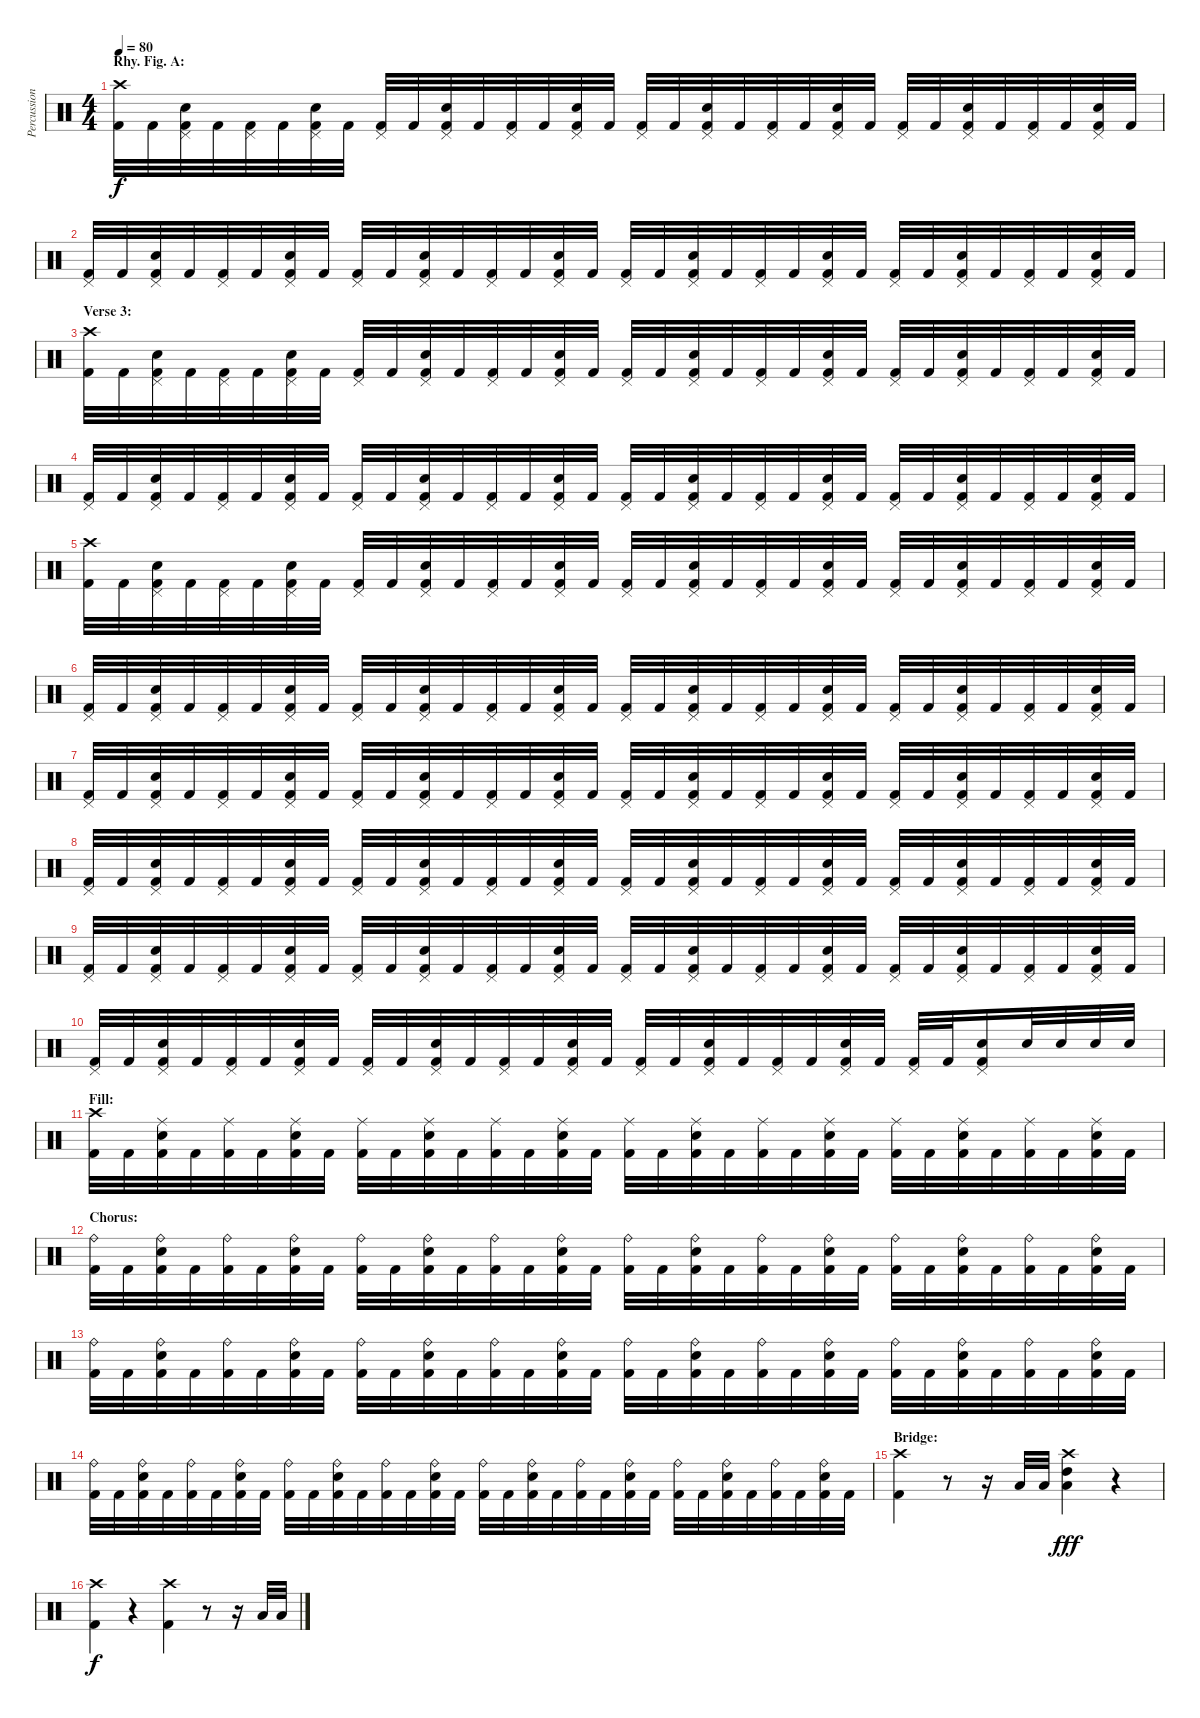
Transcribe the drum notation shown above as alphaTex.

\track ("Percussion" "Percussion") {instrument percussion}
\staff {score}
\articulation defaults
\ts (4 4)
\section ("" "Rhy. Fig. A:")
\tempo 80
\clef neutral
\ks c
("Crash high (hit)" "Kick (hit) 2").32{dy f} "Kick (hit) 2".32 ("Pedal Hi-Hat (hit)" "Electric Snare (hit)" "Kick (hit) 2").32 "Kick (hit) 2".32 ("Pedal Hi-Hat (hit)" "Kick (hit) 2").32 "Kick (hit) 2".32 ("Pedal Hi-Hat (hit)" "Electric Snare (hit)" "Kick (hit) 2").32 "Kick (hit) 2".32 ("Pedal Hi-Hat (hit)" "Kick (hit) 2").32 "Kick (hit) 2".32 ("Pedal Hi-Hat (hit)" "Electric Snare (hit)" "Kick (hit) 2").32 "Kick (hit) 2".32 ("Pedal Hi-Hat (hit)" "Kick (hit) 2").32 "Kick (hit) 2".32 ("Pedal Hi-Hat (hit)" "Electric Snare (hit)" "Kick (hit) 2").32 "Kick (hit) 2".32 ("Pedal Hi-Hat (hit)" "Kick (hit) 2").32 "Kick (hit) 2".32 ("Pedal Hi-Hat (hit)" "Electric Snare (hit)" "Kick (hit) 2").32 "Kick (hit) 2".32 ("Pedal Hi-Hat (hit)" "Kick (hit) 2").32 "Kick (hit) 2".32 ("Pedal Hi-Hat (hit)" "Electric Snare (hit)" "Kick (hit) 2").32 "Kick (hit) 2".32 ("Pedal Hi-Hat (hit)" "Kick (hit) 2").32 "Kick (hit) 2".32 ("Pedal Hi-Hat (hit)" "Electric Snare (hit)" "Kick (hit) 2").32 "Kick (hit) 2".32 ("Pedal Hi-Hat (hit)" "Kick (hit) 2").32 "Kick (hit) 2".32 ("Pedal Hi-Hat (hit)" "Electric Snare (hit)" "Kick (hit) 2").32 "Kick (hit) 2".32 |
("Pedal Hi-Hat (hit)" "Kick (hit) 2").32 "Kick (hit) 2".32 ("Pedal Hi-Hat (hit)" "Electric Snare (hit)" "Kick (hit) 2").32 "Kick (hit) 2".32 ("Pedal Hi-Hat (hit)" "Kick (hit) 2").32 "Kick (hit) 2".32 ("Pedal Hi-Hat (hit)" "Electric Snare (hit)" "Kick (hit) 2").32 "Kick (hit) 2".32 ("Pedal Hi-Hat (hit)" "Kick (hit) 2").32 "Kick (hit) 2".32 ("Pedal Hi-Hat (hit)" "Electric Snare (hit)" "Kick (hit) 2").32 "Kick (hit) 2".32 ("Pedal Hi-Hat (hit)" "Kick (hit) 2").32 "Kick (hit) 2".32 ("Pedal Hi-Hat (hit)" "Electric Snare (hit)" "Kick (hit) 2").32 "Kick (hit) 2".32 ("Pedal Hi-Hat (hit)" "Kick (hit) 2").32 "Kick (hit) 2".32 ("Pedal Hi-Hat (hit)" "Electric Snare (hit)" "Kick (hit) 2").32 "Kick (hit) 2".32 ("Pedal Hi-Hat (hit)" "Kick (hit) 2").32 "Kick (hit) 2".32 ("Pedal Hi-Hat (hit)" "Electric Snare (hit)" "Kick (hit) 2").32 "Kick (hit) 2".32 ("Pedal Hi-Hat (hit)" "Kick (hit) 2").32 "Kick (hit) 2".32 ("Pedal Hi-Hat (hit)" "Electric Snare (hit)" "Kick (hit) 2").32 "Kick (hit) 2".32 ("Pedal Hi-Hat (hit)" "Kick (hit) 2").32 "Kick (hit) 2".32 ("Pedal Hi-Hat (hit)" "Electric Snare (hit)" "Kick (hit) 2").32 "Kick (hit) 2".32 |
\section ("" "Verse 3:")
("Crash high (hit)" "Kick (hit) 2").32 "Kick (hit) 2".32 ("Pedal Hi-Hat (hit)" "Electric Snare (hit)" "Kick (hit) 2").32 "Kick (hit) 2".32 ("Pedal Hi-Hat (hit)" "Kick (hit) 2").32 "Kick (hit) 2".32 ("Pedal Hi-Hat (hit)" "Electric Snare (hit)" "Kick (hit) 2").32 "Kick (hit) 2".32 ("Pedal Hi-Hat (hit)" "Kick (hit) 2").32 "Kick (hit) 2".32 ("Pedal Hi-Hat (hit)" "Electric Snare (hit)" "Kick (hit) 2").32 "Kick (hit) 2".32 ("Pedal Hi-Hat (hit)" "Kick (hit) 2").32 "Kick (hit) 2".32 ("Pedal Hi-Hat (hit)" "Electric Snare (hit)" "Kick (hit) 2").32 "Kick (hit) 2".32 ("Pedal Hi-Hat (hit)" "Kick (hit) 2").32 "Kick (hit) 2".32 ("Pedal Hi-Hat (hit)" "Electric Snare (hit)" "Kick (hit) 2").32 "Kick (hit) 2".32 ("Pedal Hi-Hat (hit)" "Kick (hit) 2").32 "Kick (hit) 2".32 ("Pedal Hi-Hat (hit)" "Electric Snare (hit)" "Kick (hit) 2").32 "Kick (hit) 2".32 ("Pedal Hi-Hat (hit)" "Kick (hit) 2").32 "Kick (hit) 2".32 ("Pedal Hi-Hat (hit)" "Electric Snare (hit)" "Kick (hit) 2").32 "Kick (hit) 2".32 ("Pedal Hi-Hat (hit)" "Kick (hit) 2").32 "Kick (hit) 2".32 ("Pedal Hi-Hat (hit)" "Electric Snare (hit)" "Kick (hit) 2").32 "Kick (hit) 2".32 |
("Pedal Hi-Hat (hit)" "Kick (hit) 2").32 "Kick (hit) 2".32 ("Pedal Hi-Hat (hit)" "Electric Snare (hit)" "Kick (hit) 2").32 "Kick (hit) 2".32 ("Pedal Hi-Hat (hit)" "Kick (hit) 2").32 "Kick (hit) 2".32 ("Pedal Hi-Hat (hit)" "Electric Snare (hit)" "Kick (hit) 2").32 "Kick (hit) 2".32 ("Pedal Hi-Hat (hit)" "Kick (hit) 2").32 "Kick (hit) 2".32 ("Pedal Hi-Hat (hit)" "Electric Snare (hit)" "Kick (hit) 2").32 "Kick (hit) 2".32 ("Pedal Hi-Hat (hit)" "Kick (hit) 2").32 "Kick (hit) 2".32 ("Pedal Hi-Hat (hit)" "Electric Snare (hit)" "Kick (hit) 2").32 "Kick (hit) 2".32 ("Pedal Hi-Hat (hit)" "Kick (hit) 2").32 "Kick (hit) 2".32 ("Pedal Hi-Hat (hit)" "Electric Snare (hit)" "Kick (hit) 2").32 "Kick (hit) 2".32 ("Pedal Hi-Hat (hit)" "Kick (hit) 2").32 "Kick (hit) 2".32 ("Pedal Hi-Hat (hit)" "Electric Snare (hit)" "Kick (hit) 2").32 "Kick (hit) 2".32 ("Pedal Hi-Hat (hit)" "Kick (hit) 2").32 "Kick (hit) 2".32 ("Pedal Hi-Hat (hit)" "Electric Snare (hit)" "Kick (hit) 2").32 "Kick (hit) 2".32 ("Pedal Hi-Hat (hit)" "Kick (hit) 2").32 "Kick (hit) 2".32 ("Pedal Hi-Hat (hit)" "Electric Snare (hit)" "Kick (hit) 2").32 "Kick (hit) 2".32 |
("Crash high (hit)" "Kick (hit) 2").32 "Kick (hit) 2".32 ("Pedal Hi-Hat (hit)" "Electric Snare (hit)" "Kick (hit) 2").32 "Kick (hit) 2".32 ("Pedal Hi-Hat (hit)" "Kick (hit) 2").32 "Kick (hit) 2".32 ("Pedal Hi-Hat (hit)" "Electric Snare (hit)" "Kick (hit) 2").32 "Kick (hit) 2".32 ("Pedal Hi-Hat (hit)" "Kick (hit) 2").32 "Kick (hit) 2".32 ("Pedal Hi-Hat (hit)" "Electric Snare (hit)" "Kick (hit) 2").32 "Kick (hit) 2".32 ("Pedal Hi-Hat (hit)" "Kick (hit) 2").32 "Kick (hit) 2".32 ("Pedal Hi-Hat (hit)" "Electric Snare (hit)" "Kick (hit) 2").32 "Kick (hit) 2".32 ("Pedal Hi-Hat (hit)" "Kick (hit) 2").32 "Kick (hit) 2".32 ("Pedal Hi-Hat (hit)" "Electric Snare (hit)" "Kick (hit) 2").32 "Kick (hit) 2".32 ("Pedal Hi-Hat (hit)" "Kick (hit) 2").32 "Kick (hit) 2".32 ("Pedal Hi-Hat (hit)" "Electric Snare (hit)" "Kick (hit) 2").32 "Kick (hit) 2".32 ("Pedal Hi-Hat (hit)" "Kick (hit) 2").32 "Kick (hit) 2".32 ("Pedal Hi-Hat (hit)" "Electric Snare (hit)" "Kick (hit) 2").32 "Kick (hit) 2".32 ("Pedal Hi-Hat (hit)" "Kick (hit) 2").32 "Kick (hit) 2".32 ("Pedal Hi-Hat (hit)" "Electric Snare (hit)" "Kick (hit) 2").32 "Kick (hit) 2".32 |
("Pedal Hi-Hat (hit)" "Kick (hit) 2").32 "Kick (hit) 2".32 ("Pedal Hi-Hat (hit)" "Electric Snare (hit)" "Kick (hit) 2").32 "Kick (hit) 2".32 ("Pedal Hi-Hat (hit)" "Kick (hit) 2").32 "Kick (hit) 2".32 ("Pedal Hi-Hat (hit)" "Electric Snare (hit)" "Kick (hit) 2").32 "Kick (hit) 2".32 ("Pedal Hi-Hat (hit)" "Kick (hit) 2").32 "Kick (hit) 2".32 ("Pedal Hi-Hat (hit)" "Electric Snare (hit)" "Kick (hit) 2").32 "Kick (hit) 2".32 ("Pedal Hi-Hat (hit)" "Kick (hit) 2").32 "Kick (hit) 2".32 ("Pedal Hi-Hat (hit)" "Electric Snare (hit)" "Kick (hit) 2").32 "Kick (hit) 2".32 ("Pedal Hi-Hat (hit)" "Kick (hit) 2").32 "Kick (hit) 2".32 ("Pedal Hi-Hat (hit)" "Electric Snare (hit)" "Kick (hit) 2").32 "Kick (hit) 2".32 ("Pedal Hi-Hat (hit)" "Kick (hit) 2").32 "Kick (hit) 2".32 ("Pedal Hi-Hat (hit)" "Electric Snare (hit)" "Kick (hit) 2").32 "Kick (hit) 2".32 ("Pedal Hi-Hat (hit)" "Kick (hit) 2").32 "Kick (hit) 2".32 ("Pedal Hi-Hat (hit)" "Electric Snare (hit)" "Kick (hit) 2").32 "Kick (hit) 2".32 ("Pedal Hi-Hat (hit)" "Kick (hit) 2").32 "Kick (hit) 2".32 ("Pedal Hi-Hat (hit)" "Electric Snare (hit)" "Kick (hit) 2").32 "Kick (hit) 2".32 |
("Pedal Hi-Hat (hit)" "Kick (hit) 2").32 "Kick (hit) 2".32 ("Pedal Hi-Hat (hit)" "Electric Snare (hit)" "Kick (hit) 2").32 "Kick (hit) 2".32 ("Pedal Hi-Hat (hit)" "Kick (hit) 2").32 "Kick (hit) 2".32 ("Pedal Hi-Hat (hit)" "Electric Snare (hit)" "Kick (hit) 2").32 "Kick (hit) 2".32 ("Pedal Hi-Hat (hit)" "Kick (hit) 2").32 "Kick (hit) 2".32 ("Pedal Hi-Hat (hit)" "Electric Snare (hit)" "Kick (hit) 2").32 "Kick (hit) 2".32 ("Pedal Hi-Hat (hit)" "Kick (hit) 2").32 "Kick (hit) 2".32 ("Pedal Hi-Hat (hit)" "Electric Snare (hit)" "Kick (hit) 2").32 "Kick (hit) 2".32 ("Pedal Hi-Hat (hit)" "Kick (hit) 2").32 "Kick (hit) 2".32 ("Pedal Hi-Hat (hit)" "Electric Snare (hit)" "Kick (hit) 2").32 "Kick (hit) 2".32 ("Pedal Hi-Hat (hit)" "Kick (hit) 2").32 "Kick (hit) 2".32 ("Pedal Hi-Hat (hit)" "Electric Snare (hit)" "Kick (hit) 2").32 "Kick (hit) 2".32 ("Pedal Hi-Hat (hit)" "Kick (hit) 2").32 "Kick (hit) 2".32 ("Pedal Hi-Hat (hit)" "Electric Snare (hit)" "Kick (hit) 2").32 "Kick (hit) 2".32 ("Pedal Hi-Hat (hit)" "Kick (hit) 2").32 "Kick (hit) 2".32 ("Pedal Hi-Hat (hit)" "Electric Snare (hit)" "Kick (hit) 2").32 "Kick (hit) 2".32 |
("Pedal Hi-Hat (hit)" "Kick (hit) 2").32 "Kick (hit) 2".32 ("Pedal Hi-Hat (hit)" "Electric Snare (hit)" "Kick (hit) 2").32 "Kick (hit) 2".32 ("Pedal Hi-Hat (hit)" "Kick (hit) 2").32 "Kick (hit) 2".32 ("Pedal Hi-Hat (hit)" "Electric Snare (hit)" "Kick (hit) 2").32 "Kick (hit) 2".32 ("Pedal Hi-Hat (hit)" "Kick (hit) 2").32 "Kick (hit) 2".32 ("Pedal Hi-Hat (hit)" "Electric Snare (hit)" "Kick (hit) 2").32 "Kick (hit) 2".32 ("Pedal Hi-Hat (hit)" "Kick (hit) 2").32 "Kick (hit) 2".32 ("Pedal Hi-Hat (hit)" "Electric Snare (hit)" "Kick (hit) 2").32 "Kick (hit) 2".32 ("Pedal Hi-Hat (hit)" "Kick (hit) 2").32 "Kick (hit) 2".32 ("Pedal Hi-Hat (hit)" "Electric Snare (hit)" "Kick (hit) 2").32 "Kick (hit) 2".32 ("Pedal Hi-Hat (hit)" "Kick (hit) 2").32 "Kick (hit) 2".32 ("Pedal Hi-Hat (hit)" "Electric Snare (hit)" "Kick (hit) 2").32 "Kick (hit) 2".32 ("Pedal Hi-Hat (hit)" "Kick (hit) 2").32 "Kick (hit) 2".32 ("Pedal Hi-Hat (hit)" "Electric Snare (hit)" "Kick (hit) 2").32 "Kick (hit) 2".32 ("Pedal Hi-Hat (hit)" "Kick (hit) 2").32 "Kick (hit) 2".32 ("Pedal Hi-Hat (hit)" "Electric Snare (hit)" "Kick (hit) 2").32 "Kick (hit) 2".32 |
("Pedal Hi-Hat (hit)" "Kick (hit) 2").32 "Kick (hit) 2".32 ("Pedal Hi-Hat (hit)" "Electric Snare (hit)" "Kick (hit) 2").32 "Kick (hit) 2".32 ("Pedal Hi-Hat (hit)" "Kick (hit) 2").32 "Kick (hit) 2".32 ("Pedal Hi-Hat (hit)" "Electric Snare (hit)" "Kick (hit) 2").32 "Kick (hit) 2".32 ("Pedal Hi-Hat (hit)" "Kick (hit) 2").32 "Kick (hit) 2".32 ("Pedal Hi-Hat (hit)" "Electric Snare (hit)" "Kick (hit) 2").32 "Kick (hit) 2".32 ("Pedal Hi-Hat (hit)" "Kick (hit) 2").32 "Kick (hit) 2".32 ("Pedal Hi-Hat (hit)" "Electric Snare (hit)" "Kick (hit) 2").32 "Kick (hit) 2".32 ("Pedal Hi-Hat (hit)" "Kick (hit) 2").32 "Kick (hit) 2".32 ("Pedal Hi-Hat (hit)" "Electric Snare (hit)" "Kick (hit) 2").32 "Kick (hit) 2".32 ("Pedal Hi-Hat (hit)" "Kick (hit) 2").32 "Kick (hit) 2".32 ("Pedal Hi-Hat (hit)" "Electric Snare (hit)" "Kick (hit) 2").32 "Kick (hit) 2".32 ("Pedal Hi-Hat (hit)" "Kick (hit) 2").32 "Kick (hit) 2".32 ("Pedal Hi-Hat (hit)" "Electric Snare (hit)" "Kick (hit) 2").32 "Kick (hit) 2".32 ("Pedal Hi-Hat (hit)" "Kick (hit) 2").32 "Kick (hit) 2".32 ("Pedal Hi-Hat (hit)" "Electric Snare (hit)" "Kick (hit) 2").32 "Kick (hit) 2".32 |
("Pedal Hi-Hat (hit)" "Kick (hit) 2").32 "Kick (hit) 2".32 ("Pedal Hi-Hat (hit)" "Electric Snare (hit)" "Kick (hit) 2").32 "Kick (hit) 2".32 ("Pedal Hi-Hat (hit)" "Kick (hit) 2").32 "Kick (hit) 2".32 ("Pedal Hi-Hat (hit)" "Electric Snare (hit)" "Kick (hit) 2").32 "Kick (hit) 2".32 ("Pedal Hi-Hat (hit)" "Kick (hit) 2").32 "Kick (hit) 2".32 ("Pedal Hi-Hat (hit)" "Electric Snare (hit)" "Kick (hit) 2").32 "Kick (hit) 2".32 ("Pedal Hi-Hat (hit)" "Kick (hit) 2").32 "Kick (hit) 2".32 ("Pedal Hi-Hat (hit)" "Electric Snare (hit)" "Kick (hit) 2").32 "Kick (hit) 2".32 ("Pedal Hi-Hat (hit)" "Kick (hit) 2").32 "Kick (hit) 2".32 ("Pedal Hi-Hat (hit)" "Electric Snare (hit)" "Kick (hit) 2").32 "Kick (hit) 2".32 ("Pedal Hi-Hat (hit)" "Kick (hit) 2").32 "Kick (hit) 2".32 ("Pedal Hi-Hat (hit)" "Electric Snare (hit)" "Kick (hit) 2").32 "Kick (hit) 2".32 ("Pedal Hi-Hat (hit)" "Kick (hit) 2").32 "Kick (hit) 2".32 ("Pedal Hi-Hat (hit)" "Electric Snare (hit)" "Kick (hit) 2").16 "Electric Snare (hit)".32 "Electric Snare (hit)".32 "Electric Snare (hit)".32 "Electric Snare (hit)".32 |
\section ("" "Fill:")
("Crash high (hit)" "Kick (hit) 2").32 "Kick (hit) 2".32 ("Ride (middle)" "Electric Snare (hit)" "Kick (hit) 2").32 "Kick (hit) 2".32 ("Ride (middle)" "Kick (hit) 2").32 "Kick (hit) 2".32 ("Ride (middle)" "Electric Snare (hit)" "Kick (hit) 2").32 "Kick (hit) 2".32 ("Ride (middle)" "Kick (hit) 2").32 "Kick (hit) 2".32 ("Ride (middle)" "Electric Snare (hit)" "Kick (hit) 2").32 "Kick (hit) 2".32 ("Ride (middle)" "Kick (hit) 2").32 "Kick (hit) 2".32 ("Ride (middle)" "Electric Snare (hit)" "Kick (hit) 2").32 "Kick (hit) 2".32 ("Ride (middle)" "Kick (hit) 2").32 "Kick (hit) 2".32 ("Ride (middle)" "Electric Snare (hit)" "Kick (hit) 2").32 "Kick (hit) 2".32 ("Ride (middle)" "Kick (hit) 2").32 "Kick (hit) 2".32 ("Ride (middle)" "Electric Snare (hit)" "Kick (hit) 2").32 "Kick (hit) 2".32 ("Ride (middle)" "Kick (hit) 2").32 "Kick (hit) 2".32 ("Ride (middle)" "Electric Snare (hit)" "Kick (hit) 2").32 "Kick (hit) 2".32 ("Ride (middle)" "Kick (hit) 2").32 "Kick (hit) 2".32 ("Ride (middle)" "Electric Snare (hit)" "Kick (hit) 2").32 "Kick (hit) 2".32 |
\section ("" "Chorus:")
("Ride (bell)" "Kick (hit) 2").32 "Kick (hit) 2".32 ("Ride (bell)" "Electric Snare (hit)" "Kick (hit) 2").32 "Kick (hit) 2".32 ("Ride (bell)" "Kick (hit) 2").32 "Kick (hit) 2".32 ("Ride (bell)" "Electric Snare (hit)" "Kick (hit) 2").32 "Kick (hit) 2".32 ("Ride (bell)" "Kick (hit) 2").32 "Kick (hit) 2".32 ("Ride (bell)" "Electric Snare (hit)" "Kick (hit) 2").32 "Kick (hit) 2".32 ("Ride (bell)" "Kick (hit) 2").32 "Kick (hit) 2".32 ("Ride (bell)" "Electric Snare (hit)" "Kick (hit) 2").32 "Kick (hit) 2".32 ("Ride (bell)" "Kick (hit) 2").32 "Kick (hit) 2".32 ("Ride (bell)" "Electric Snare (hit)" "Kick (hit) 2").32 "Kick (hit) 2".32 ("Ride (bell)" "Kick (hit) 2").32 "Kick (hit) 2".32 ("Ride (bell)" "Electric Snare (hit)" "Kick (hit) 2").32 "Kick (hit) 2".32 ("Ride (bell)" "Kick (hit) 2").32 "Kick (hit) 2".32 ("Ride (bell)" "Electric Snare (hit)" "Kick (hit) 2").32 "Kick (hit) 2".32 ("Ride (bell)" "Kick (hit) 2").32 "Kick (hit) 2".32 ("Ride (bell)" "Electric Snare (hit)" "Kick (hit) 2").32 "Kick (hit) 2".32 |
("Ride (bell)" "Kick (hit) 2").32 "Kick (hit) 2".32 ("Ride (bell)" "Electric Snare (hit)" "Kick (hit) 2").32 "Kick (hit) 2".32 ("Ride (bell)" "Kick (hit) 2").32 "Kick (hit) 2".32 ("Ride (bell)" "Electric Snare (hit)" "Kick (hit) 2").32 "Kick (hit) 2".32 ("Ride (bell)" "Kick (hit) 2").32 "Kick (hit) 2".32 ("Ride (bell)" "Electric Snare (hit)" "Kick (hit) 2").32 "Kick (hit) 2".32 ("Ride (bell)" "Kick (hit) 2").32 "Kick (hit) 2".32 ("Ride (bell)" "Electric Snare (hit)" "Kick (hit) 2").32 "Kick (hit) 2".32 ("Ride (bell)" "Kick (hit) 2").32 "Kick (hit) 2".32 ("Ride (bell)" "Electric Snare (hit)" "Kick (hit) 2").32 "Kick (hit) 2".32 ("Ride (bell)" "Kick (hit) 2").32 "Kick (hit) 2".32 ("Ride (bell)" "Electric Snare (hit)" "Kick (hit) 2").32 "Kick (hit) 2".32 ("Ride (bell)" "Kick (hit) 2").32 "Kick (hit) 2".32 ("Ride (bell)" "Electric Snare (hit)" "Kick (hit) 2").32 "Kick (hit) 2".32 ("Ride (bell)" "Kick (hit) 2").32 "Kick (hit) 2".32 ("Ride (bell)" "Electric Snare (hit)" "Kick (hit) 2").32 "Kick (hit) 2".32 |
("Ride (bell)" "Kick (hit) 2").32 "Kick (hit) 2".32 ("Ride (bell)" "Electric Snare (hit)" "Kick (hit) 2").32 "Kick (hit) 2".32 ("Ride (bell)" "Kick (hit) 2").32 "Kick (hit) 2".32 ("Ride (bell)" "Electric Snare (hit)" "Kick (hit) 2").32 "Kick (hit) 2".32 ("Ride (bell)" "Kick (hit) 2").32 "Kick (hit) 2".32 ("Ride (bell)" "Electric Snare (hit)" "Kick (hit) 2").32 "Kick (hit) 2".32 ("Ride (bell)" "Kick (hit) 2").32 "Kick (hit) 2".32 ("Ride (bell)" "Electric Snare (hit)" "Kick (hit) 2").32 "Kick (hit) 2".32 ("Ride (bell)" "Kick (hit) 2").32 "Kick (hit) 2".32 ("Ride (bell)" "Electric Snare (hit)" "Kick (hit) 2").32 "Kick (hit) 2".32 ("Ride (bell)" "Kick (hit) 2").32 "Kick (hit) 2".32 ("Ride (bell)" "Electric Snare (hit)" "Kick (hit) 2").32 "Kick (hit) 2".32 ("Ride (bell)" "Kick (hit) 2").32 "Kick (hit) 2".32 ("Ride (bell)" "Electric Snare (hit)" "Kick (hit) 2").32 "Kick (hit) 2".32 ("Ride (bell)" "Kick (hit) 2").32 "Kick (hit) 2".32 ("Ride (bell)" "Electric Snare (hit)" "Kick (hit) 2").32 "Kick (hit) 2".32 |
\section ("" "Bridge:")
("Crash high (hit)" "Kick (hit) 2").4 r.8 r.16 "Low Tom (hit)".32 "Low Tom (hit)".32 ("Crash high (hit)" "High Tom (hit)" "Low Tom (hit)").4{dy fff} r.4 |
("Crash high (hit)" "Kick (hit) 2").4{dy f} r.4 ("Crash high (hit)" "Kick (hit) 2").4 r.8 r.16 "Low Tom (hit)".32 "Low Tom (hit)".32
